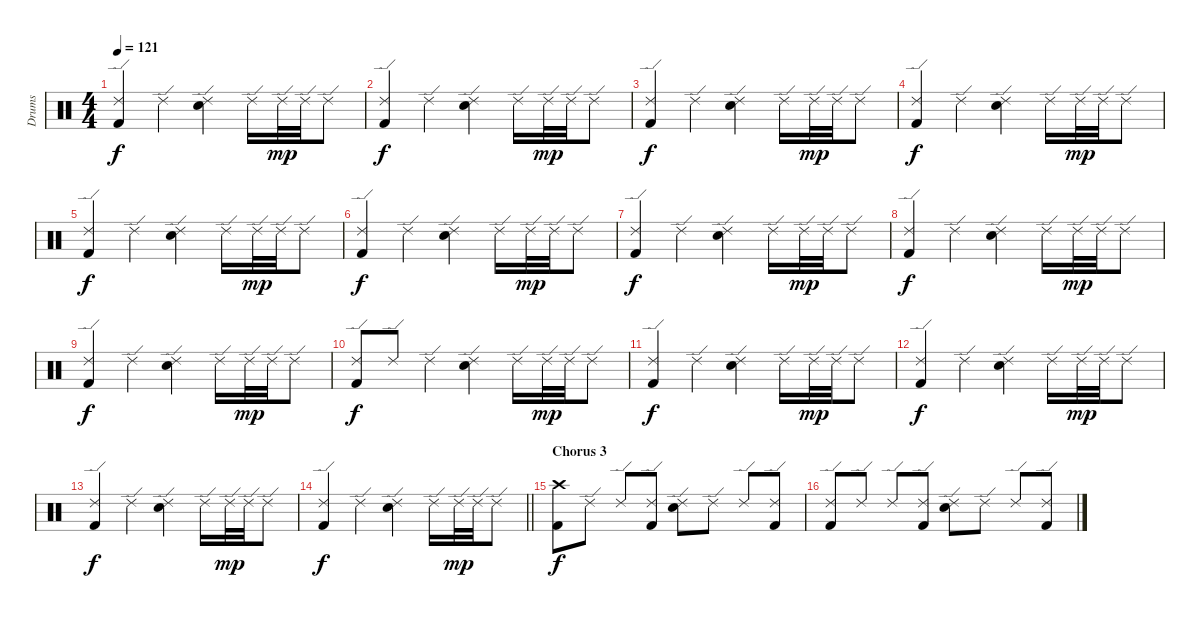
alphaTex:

\track ("Drums" "Drums") {instrument percussion}
\staff {score}
\articulation defaults
\ts (4 4)
\tempo 121
\clef neutral
\ks c
("Ride (edge) 2" "Kick (hit) 2").4{dy f} "Ride (edge) 2".4 ("Ride (edge) 2" "Electric Snare (hit)").4 "Ride (edge) 2".16 "Ride (edge) 2".32{dy mp} "Ride (edge) 2".32 "Ride (edge) 2".8 |
("Ride (edge) 2" "Kick (hit) 2").4{dy f} "Ride (edge) 2".4 ("Ride (edge) 2" "Electric Snare (hit)").4 "Ride (edge) 2".16 "Ride (edge) 2".32{dy mp} "Ride (edge) 2".32 "Ride (edge) 2".8 |
("Ride (edge) 2" "Kick (hit) 2").4{dy f} "Ride (edge) 2".4 ("Ride (edge) 2" "Electric Snare (hit)").4 "Ride (edge) 2".16 "Ride (edge) 2".32{dy mp} "Ride (edge) 2".32 "Ride (edge) 2".8 |
("Ride (edge) 2" "Kick (hit) 2").4{dy f} "Ride (edge) 2".4 ("Ride (edge) 2" "Electric Snare (hit)").4 "Ride (edge) 2".16 "Ride (edge) 2".32{dy mp} "Ride (edge) 2".32 "Ride (edge) 2".8 |
("Ride (edge) 2" "Kick (hit) 2").4{dy f} "Ride (edge) 2".4 ("Ride (edge) 2" "Electric Snare (hit)").4 "Ride (edge) 2".16 "Ride (edge) 2".32{dy mp} "Ride (edge) 2".32 "Ride (edge) 2".8 |
("Ride (edge) 2" "Kick (hit) 2").4{dy f} "Ride (edge) 2".4 ("Ride (edge) 2" "Electric Snare (hit)").4 "Ride (edge) 2".16 "Ride (edge) 2".32{dy mp} "Ride (edge) 2".32 "Ride (edge) 2".8 |
("Ride (edge) 2" "Kick (hit) 2").4{dy f} "Ride (edge) 2".4 ("Ride (edge) 2" "Electric Snare (hit)").4 "Ride (edge) 2".16 "Ride (edge) 2".32{dy mp} "Ride (edge) 2".32 "Ride (edge) 2".8 |
("Ride (edge) 2" "Kick (hit) 2").4{dy f} "Ride (edge) 2".4 ("Ride (edge) 2" "Electric Snare (hit)").4 "Ride (edge) 2".16 "Ride (edge) 2".32{dy mp} "Ride (edge) 2".32 "Ride (edge) 2".8 |
("Ride (edge) 2" "Kick (hit) 2").4{dy f} "Ride (edge) 2".4 ("Ride (edge) 2" "Electric Snare (hit)").4 "Ride (edge) 2".16 "Ride (edge) 2".32{dy mp} "Ride (edge) 2".32 "Ride (edge) 2".8 |
("Ride (edge) 2" "Kick (hit) 2").8{dy f} "Ride (edge) 2".8 "Ride (edge) 2".4 ("Ride (edge) 2" "Electric Snare (hit)").4 "Ride (edge) 2".16 "Ride (edge) 2".32{dy mp} "Ride (edge) 2".32 "Ride (edge) 2".8 |
("Ride (edge) 2" "Kick (hit) 2").4{dy f} "Ride (edge) 2".4 ("Ride (edge) 2" "Electric Snare (hit)").4 "Ride (edge) 2".16 "Ride (edge) 2".32{dy mp} "Ride (edge) 2".32 "Ride (edge) 2".8 |
("Ride (edge) 2" "Kick (hit) 2").4{dy f} "Ride (edge) 2".4 ("Ride (edge) 2" "Electric Snare (hit)").4 "Ride (edge) 2".16 "Ride (edge) 2".32{dy mp} "Ride (edge) 2".32 "Ride (edge) 2".8 |
("Ride (edge) 2" "Kick (hit) 2").4{dy f} "Ride (edge) 2".4 ("Ride (edge) 2" "Electric Snare (hit)").4 "Ride (edge) 2".16 "Ride (edge) 2".32{dy mp} "Ride (edge) 2".32 "Ride (edge) 2".8 |
\barLineRight lightlight
("Ride (edge) 2" "Kick (hit) 2").4{dy f} "Ride (edge) 2".4 ("Ride (edge) 2" "Electric Snare (hit)").4 "Ride (edge) 2".16 "Ride (edge) 2".32{dy mp} "Ride (edge) 2".32 "Ride (edge) 2".8 |
\section ("" "Chorus 3")
("Crash high (hit)" "Kick (hit) 2").8{dy f volume 10} "Ride (edge) 2".8 "Ride (edge) 2".8 ("Ride (edge) 2" "Kick (hit) 2").8 ("Ride (edge) 2" "Electric Snare (hit)").8 "Ride (edge) 2".8 "Ride (edge) 2".8 ("Ride (edge) 2" "Kick (hit) 2").8 |
("Ride (edge) 2" "Kick (hit) 2").8 "Ride (edge) 2".8 "Ride (edge) 2".8 ("Ride (edge) 2" "Kick (hit) 2").8 ("Ride (edge) 2" "Electric Snare (hit)").8 "Ride (edge) 2".8 "Ride (edge) 2".8 ("Ride (edge) 2" "Kick (hit) 2").8
